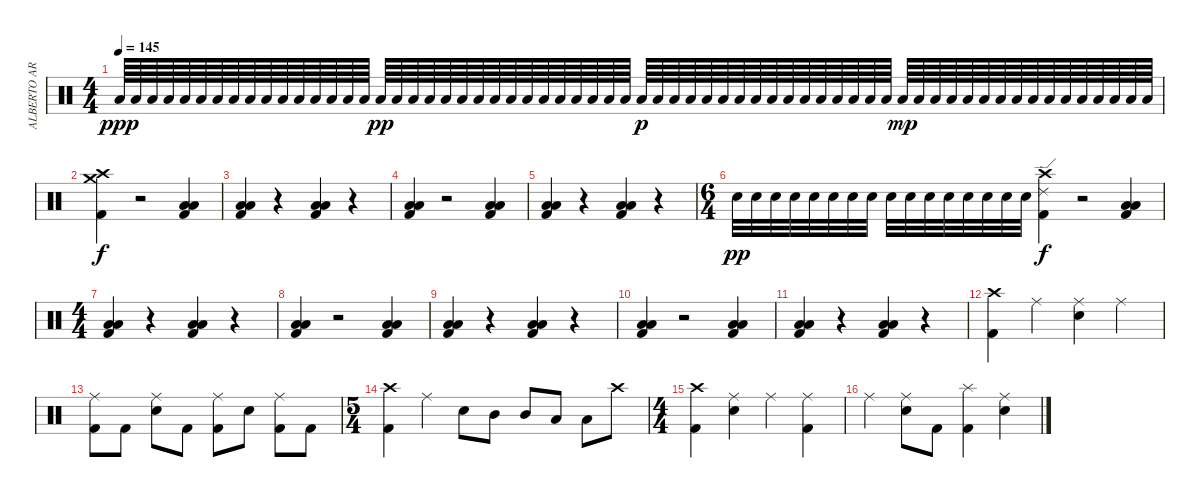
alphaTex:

\track ("ALBERTO ARDINES" "ALBERTO AR") {instrument percussion}
\staff {score}
\articulation defaults
\ts (4 4)
\tempo 145
\clef neutral
\ks c "Low Floor Tom (hit)".64{dy ppp} "Low Floor Tom (hit)".64 "Low Floor Tom (hit)".64 "Low Floor Tom (hit)".64 "Low Floor Tom (hit)".64 "Low Floor Tom (hit)".64 "Low Floor Tom (hit)".64 "Low Floor Tom (hit)".64 "Low Floor Tom (hit)".64 "Low Floor Tom (hit)".64 "Low Floor Tom (hit)".64 "Low Floor Tom (hit)".64 "Low Floor Tom (hit)".64 "Low Floor Tom (hit)".64 "Low Floor Tom (hit)".64 "Low Floor Tom (hit)".64 "Low Floor Tom (hit)".64{dy pp} "Low Floor Tom (hit)".64 "Low Floor Tom (hit)".64 "Low Floor Tom (hit)".64 "Low Floor Tom (hit)".64 "Low Floor Tom (hit)".64 "Low Floor Tom (hit)".64 "Low Floor Tom (hit)".64 "Low Floor Tom (hit)".64 "Low Floor Tom (hit)".64 "Low Floor Tom (hit)".64 "Low Floor Tom (hit)".64 "Low Floor Tom (hit)".64 "Low Floor Tom (hit)".64 "Low Floor Tom (hit)".64 "Low Floor Tom (hit)".64 "Low Floor Tom (hit)".64{dy p} "Low Floor Tom (hit)".64 "Low Floor Tom (hit)".64 "Low Floor Tom (hit)".64 "Low Floor Tom (hit)".64 "Low Floor Tom (hit)".64 "Low Floor Tom (hit)".64 "Low Floor Tom (hit)".64 "Low Floor Tom (hit)".64 "Low Floor Tom (hit)".64 "Low Floor Tom (hit)".64 "Low Floor Tom (hit)".64 "Low Floor Tom (hit)".64 "Low Floor Tom (hit)".64 "Low Floor Tom (hit)".64 "Low Floor Tom (hit)".64 "Low Floor Tom (hit)".64{dy mp} "Low Floor Tom (hit)".64 "Low Floor Tom (hit)".64 "Low Floor Tom (hit)".64 "Low Floor Tom (hit)".64 "Low Floor Tom (hit)".64 "Low Floor Tom (hit)".64 "Low Floor Tom (hit)".64 "Low Floor Tom (hit)".64 "Low Floor Tom (hit)".64 "Low Floor Tom (hit)".64 "Low Floor Tom (hit)".64 "Low Floor Tom (hit)".64 "Low Floor Tom (hit)".64 "Low Floor Tom (hit)".64 "Low Floor Tom (hit)".64
|
("Crash high (hit)" "Crash medium (hit)" "Kick (hit) 2").4{dy f} r.2 ("Low Floor Tom (hit)" "Low Tom (hit)" "Kick (hit) 2").4 |
("Low Floor Tom (hit)" "Low Tom (hit)" "Kick (hit) 2").4 r.4 ("Low Floor Tom (hit)" "Low Tom (hit)" "Kick (hit) 2").4 r.4 |
("Low Floor Tom (hit)" "Low Tom (hit)" "Kick (hit) 2").4 r.2 ("Low Floor Tom (hit)" "Low Tom (hit)" "Kick (hit) 2").4 |
("Low Floor Tom (hit)" "Low Tom (hit)" "Kick (hit) 2").4 r.4 ("Low Floor Tom (hit)" "Low Tom (hit)" "Kick (hit) 2").4 r.4 |
\ts (6 4)
"Snare (hit) 2".32{dy pp} "Snare (hit) 2".32 "Snare (hit) 2".32 "Snare (hit) 2".32 "Snare (hit) 2".32 "Snare (hit) 2".32 "Snare (hit) 2".32 "Snare (hit) 2".32 "Snare (hit) 2".32 "Snare (hit) 2".32 "Snare (hit) 2".32 "Snare (hit) 2".32 "Snare (hit) 2".32 "Snare (hit) 2".32 "Snare (hit) 2".32 "Snare (hit) 2".32 ("Crash high (hit)" "Ride (edge) 2" "Kick (hit) 2").4{dy f} r.2 ("Low Floor Tom (hit)" "Low Tom (hit)" "Kick (hit) 2").4 |
\ts (4 4)
("Low Floor Tom (hit)" "Low Tom (hit)" "Kick (hit) 2").4 r.4 ("Low Floor Tom (hit)" "Low Tom (hit)" "Kick (hit) 2").4 r.4 |
("Low Floor Tom (hit)" "Low Tom (hit)" "Kick (hit) 2").4 r.2 ("Low Floor Tom (hit)" "Low Tom (hit)" "Kick (hit) 2").4 |
("Low Floor Tom (hit)" "Low Tom (hit)" "Kick (hit) 2").4 r.4 ("Low Floor Tom (hit)" "Low Tom (hit)" "Kick (hit) 2").4 r.4 |
("Low Floor Tom (hit)" "Low Tom (hit)" "Kick (hit) 2").4 r.2 ("Low Floor Tom (hit)" "Low Tom (hit)" "Kick (hit) 2").4 |
("Low Floor Tom (hit)" "Low Tom (hit)" "Kick (hit) 2").4 r.4 ("Low Floor Tom (hit)" "Low Tom (hit)" "Kick (hit) 2").4 r.4 |
("Crash high (hit)" "Kick (hit) 2").4 "Ride (middle)".4 ("Ride (middle)" "Electric Snare (hit)").4 "Ride (middle)".4 |
("Ride (middle)" "Kick (hit) 2").8 "Kick (hit) 2".8 ("Ride (middle)" "Electric Snare (hit)").8 "Kick (hit) 2".8 ("Ride (middle)" "Kick (hit) 2").8 "Electric Snare (hit)".8 ("Ride (middle)" "Kick (hit) 2").8 "Kick (hit) 2".8 |
\ts (5 4)
("Crash high (hit)" "Kick (hit) 2").4 "Ride (middle)".4 "Electric Snare (hit)".8 "Mid Tom (hit)".8 "Mid Tom (hit)".8 "Low Tom (hit)".8 "Low Tom (hit)".8 "Crash high (hit)".8 |
\ts (4 4)
("Crash high (hit)" "Kick (hit) 2").4 ("Ride (middle)" "Electric Snare (hit)").4 "Ride (middle)".4 ("Ride (middle)" "Kick (hit) 2").4 |
"Ride (middle)".4 ("Ride (middle)" "Electric Snare (hit)").8 "Kick (hit) 2".8 ("Splash (hit)" "Kick (hit) 2").4 ("Ride (middle)" "Electric Snare (hit)").4
